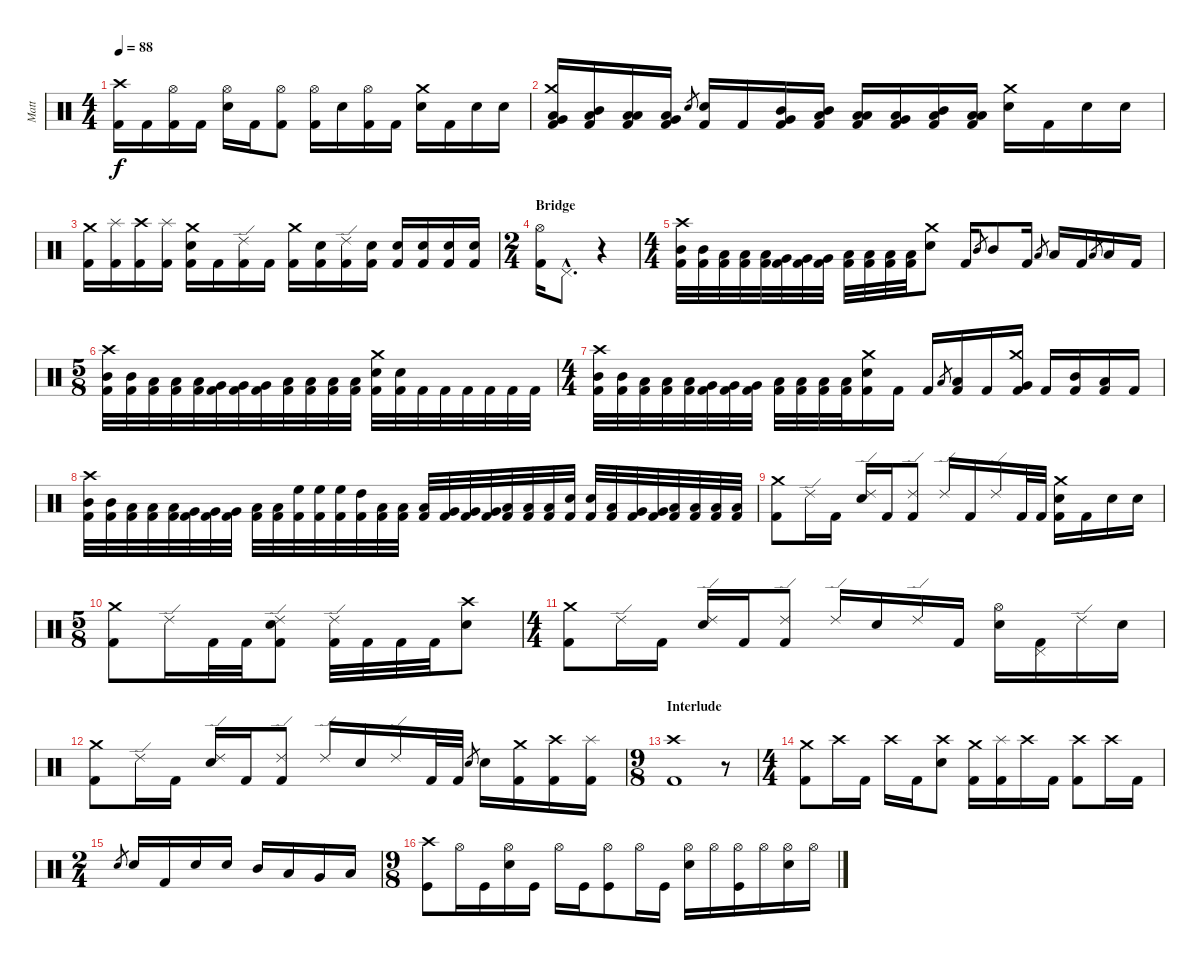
\track ("Matt" "Matt") {instrument percussion}
\staff {score}
\articulation defaults
\ts (4 4)
\tempo 88
\clef neutral
\ks c
("Crash high (hit)" "Kick (hit) 2").16{dy f} "Kick (hit) 2".16 ("Hi-Hat (open)" "Kick (hit) 2").16 "Kick (hit) 2".16 ("Hi-Hat (open)" "Electric Snare (hit)").16 "Kick (hit) 2".16 ("Hi-Hat (open)" "Kick (hit) 2").8 ("Hi-Hat (open)" "Kick (hit) 2").16 "Electric Snare (hit)".16 ("Hi-Hat (open)" "Kick (hit) 2").16 "Kick (hit) 2".16 ("Crash medium (hit)" "Electric Snare (hit)").16 "Kick (hit) 2".16 "Electric Snare (hit)".16 "Electric Snare (hit)".16 |
("Crash medium (hit)" "Low Tom (hit)" "Very Low Tom (hit)" "Kick (hit) 2").16 ("Low Tom (hit)" "Mid Tom (hit)" "Kick (hit) 2").16 ("Low Tom (hit)" "Low Tom (hit)" "Kick (hit) 2").16 ("Low Tom (hit)" "Very Low Tom (hit)" "Kick (hit) 2").16 "Electric Snare (hit)".8{gr} ("Electric Snare (hit)" "Kick (hit) 2").16 "Kick (hit) 2".16 ("Mid Tom (hit)" "Very Low Tom (hit)" "Kick (hit) 2").16 ("Low Tom (hit)" "Mid Tom (hit)" "Kick (hit) 2").16 ("Low Tom (hit)" "Low Tom (hit)" "Kick (hit) 2").16 ("Low Tom (hit)" "Very Low Tom (hit)" "Kick (hit) 2").16 ("Low Tom (hit)" "Mid Tom (hit)" "Kick (hit) 2").16 ("Low Tom (hit)" "Low Tom (hit)" "Kick (hit) 2").16 ("Crash medium (hit)" "Electric Snare (hit)").16 "Kick (hit) 2".16 "Electric Snare (hit)".16 "Electric Snare (hit)".16 |
("Crash medium (hit)" "Kick (hit) 2").16 ("Splash (hit)" "Kick (hit) 2").16 ("Crash high (hit)" "Kick (hit) 2").16 ("Splash (hit)" "Kick (hit) 2").16 ("Crash medium (hit)" "Electric Snare (hit)" "Kick (hit) 2").16 "Kick (hit) 2".16 ("Ride (edge) 2" "Kick (hit) 2").16 "Kick (hit) 2".16 ("Crash medium (hit)" "Kick (hit) 2").16 ("Electric Snare (hit)" "Kick (hit) 2").16 ("Ride (edge) 2" "Kick (hit) 2").16 ("Electric Snare (hit)" "Kick (hit) 2").16 ("Electric Snare (hit)" "Kick (hit) 2").16 ("Electric Snare (hit)" "Kick (hit) 2").16 ("Electric Snare (hit)" "Kick (hit) 2").16 ("Electric Snare (hit)" "Kick (hit) 2").16 |
\ts (2 4)
\section ("" "Bridge")
("Hi-Hat (open)" "Kick (hit) 2").16 "Pedal Hi-Hat (hit)"{hac}.8{d} r.4 |
\ts (4 4)
("Crash high (hit)" "Mid Tom (hit)" "Kick (hit) 2").32 ("Mid Tom (hit)" "Kick (hit) 2").32 ("Low Tom (hit)" "Kick (hit) 2").32 ("Low Tom (hit)" "Kick (hit) 2").32 ("Low Tom (hit)" "Kick (hit) 2").32 ("Very Low Tom (hit)" "Kick (hit) 2").32 ("Very Low Tom (hit)" "Kick (hit) 2").32 ("Very Low Tom (hit)" "Kick (hit) 2").32 ("Low Floor Tom (hit)" "Kick (hit) 2").32 ("Low Floor Tom (hit)" "Kick (hit) 2").32 ("Low Floor Tom (hit)" "Kick (hit) 2").32 ("Low Floor Tom (hit)" "Kick (hit) 2").32 ("Crash medium (hit)" "Electric Snare (hit)").8 "Kick (hit) 2".16 "Mid Tom (hit)".8{gr} "Mid Tom (hit)".8 "Kick (hit) 2".16 "Low Tom (hit)".8{gr} "Low Tom (hit)".16 "Kick (hit) 2".16 "Low Tom (hit)".8{gr} "Low Tom (hit)".16 "Kick (hit) 2".16 |
\ts (5 8)
("Crash high (hit)" "Mid Tom (hit)" "Kick (hit) 2").32 ("Mid Tom (hit)" "Kick (hit) 2").32 ("Low Tom (hit)" "Kick (hit) 2").32 ("Low Tom (hit)" "Kick (hit) 2").32 ("Low Tom (hit)" "Kick (hit) 2").32 ("Very Low Tom (hit)" "Kick (hit) 2").32 ("Very Low Tom (hit)" "Kick (hit) 2").32 ("Very Low Tom (hit)" "Kick (hit) 2").32 ("Low Floor Tom (hit)" "Kick (hit) 2").32 ("Low Floor Tom (hit)" "Kick (hit) 2").32 ("Low Floor Tom (hit)" "Kick (hit) 2").32 ("Low Floor Tom (hit)" "Kick (hit) 2").32 ("Crash medium (hit)" "Electric Snare (hit)" "Kick (hit) 2").32 ("Electric Snare (hit)" "Kick (hit) 2").32 "Kick (hit) 2".32 "Kick (hit) 2".32 "Kick (hit) 2".32 "Kick (hit) 2".32 "Kick (hit) 2".32 "Kick (hit) 2".32 |
\ts (4 4)
("Crash high (hit)" "Mid Tom (hit)" "Kick (hit) 2").32 ("Mid Tom (hit)" "Kick (hit) 2").32 ("Low Tom (hit)" "Kick (hit) 2").32 ("Low Tom (hit)" "Kick (hit) 2").32 ("Low Tom (hit)" "Kick (hit) 2").32 ("Very Low Tom (hit)" "Kick (hit) 2").32 ("Very Low Tom (hit)" "Kick (hit) 2").32 ("Very Low Tom (hit)" "Kick (hit) 2").32 ("Low Floor Tom (hit)" "Kick (hit) 2").32 ("Low Floor Tom (hit)" "Kick (hit) 2").32 ("Low Floor Tom (hit)" "Kick (hit) 2").32 ("Low Floor Tom (hit)" "Kick (hit) 2").32 ("Crash medium (hit)" "Electric Snare (hit)" "Kick (hit) 2").16 "Kick (hit) 2".16 "Kick (hit) 2".16 "Low Tom (hit)".8{gr} ("Low Tom (hit)" "Kick (hit) 2").16 "Kick (hit) 2".16 ("Crash medium (hit)" "Very Low Tom (hit)" "Kick (hit) 2").16 "Kick (hit) 2".16 ("Mid Tom (hit)" "Kick (hit) 2").16 ("Low Tom (hit)" "Kick (hit) 2").16 "Kick (hit) 2".16 |
("Crash high (hit)" "Mid Tom (hit)" "Kick (hit) 2").32 ("Mid Tom (hit)" "Kick (hit) 2").32 ("Low Tom (hit)" "Kick (hit) 2").32 ("Low Tom (hit)" "Kick (hit) 2").32 ("Low Tom (hit)" "Kick (hit) 2").32 ("Very Low Tom (hit)" "Kick (hit) 2").32 ("Very Low Tom (hit)" "Kick (hit) 2").32 ("Very Low Tom (hit)" "Kick (hit) 2").32 ("Low Floor Tom (hit)" "Kick (hit) 2").32 ("Low Floor Tom (hit)" "Kick (hit) 2").32 ("High Floor Tom (hit)" "Kick (hit) 2").32 ("High Floor Tom (hit)" "Kick (hit) 2").32 ("High Floor Tom (hit)" "Kick (hit) 2").32 ("High Tom (hit)" "Kick (hit) 2").32 ("Low Tom (hit)" "Kick (hit) 2").32 ("Low Tom (hit)" "Kick (hit) 2").32 ("Low Tom (hit)" "Kick (hit) 2").32 ("Very Low Tom (hit)" "Kick (hit) 2").32 ("Very Low Tom (hit)" "Kick (hit) 2").32 ("Very Low Tom (hit)" "Kick (hit) 2").32 ("Low Floor Tom (hit)" "Kick (hit) 2").32 ("Low Floor Tom (hit)" "Kick (hit) 2").32 ("Low Floor Tom (hit)" "Kick (hit) 2").32 ("Electric Snare (hit)" "Kick (hit) 2").32 ("Electric Snare (hit)" "Kick (hit) 2").32 ("Low Tom (hit)" "Kick (hit) 2").32 ("Very Low Tom (hit)" "Kick (hit) 2").32 ("Very Low Tom (hit)" "Kick (hit) 2").32 ("Low Floor Tom (hit)" "Kick (hit) 2").32 ("Low Floor Tom (hit)" "Kick (hit) 2").32 ("Low Floor Tom (hit)" "Kick (hit) 2").32 ("Low Floor Tom (hit)" "Kick (hit) 2").32 |
("Crash medium (hit)" "Kick (hit) 2").8 "Ride (edge) 2".16 "Kick (hit) 2".16 ("Ride (edge) 2" "Electric Snare (hit)").16 "Kick (hit) 2".16 ("Ride (edge) 2" "Kick (hit) 2").8 "Ride (edge) 2".16 "Kick (hit) 2".16 "Ride (edge) 2".16 "Kick (hit) 2".32 "Kick (hit) 2".32 ("Crash medium (hit)" "Electric Snare (hit)" "Kick (hit) 2").16 "Kick (hit) 2".16 "Electric Snare (hit)".16 "Electric Snare (hit)".16 |
\ts (5 8)
("Crash medium (hit)" "Kick (hit) 2").8 "Ride (edge) 2".16 "Kick (hit) 2".32 "Kick (hit) 2".32 ("Ride (edge) 2" "Electric Snare (hit)" "Kick (hit) 2").8 ("Ride (edge) 2" "Kick (hit) 2").32 "Kick (hit) 2".32 "Kick (hit) 2".32 "Kick (hit) 2".32 ("Crash high (hit)" "Electric Snare (hit)").8 |
\ts (4 4)
("Crash medium (hit)" "Kick (hit) 2").8 "Ride (edge) 2".16 "Kick (hit) 2".16 ("Ride (edge) 2" "Electric Snare (hit)").16 "Kick (hit) 2".16 ("Ride (edge) 2" "Kick (hit) 2").8 "Ride (edge) 2".16 "Electric Snare (hit)".16 "Ride (edge) 2".16 "Kick (hit) 2".16 ("Hi-Hat (open)" "Electric Snare (hit)").16 ("Pedal Hi-Hat (hit)" "Kick (hit) 2").16 "Ride (edge) 2".16 "Electric Snare (hit)".16 |
("Crash medium (hit)" "Kick (hit) 2").8 "Ride (edge) 2".16 "Kick (hit) 2".16 ("Ride (edge) 2" "Electric Snare (hit)").16 "Kick (hit) 2".16 ("Ride (edge) 2" "Kick (hit) 2").8 "Ride (edge) 2".16 "Electric Snare (hit)".16 "Ride (edge) 2".16 "Kick (hit) 2".32 "Kick (hit) 2".32 "Electric Snare (hit)".8{gr} "Electric Snare (hit)".16 ("Crash medium (hit)" "Kick (hit) 2").16 ("Crash high (hit)" "Kick (hit) 2").16 ("Splash (hit)" "Kick (hit) 2").16 |
\ts (9 8)
\section ("" "Interlude")
("Crash high (hit)" "Kick (hit) 2").1 r.8 |
\ts (4 4)
("Crash medium (hit)" "Kick (hit) 2").8 "Crash high (hit)".16 "Kick (hit) 2".16 "Crash high (hit)".16 "Kick (hit) 2".16 ("Crash high (hit)" "Electric Snare (hit)").8 ("Crash medium (hit)" "Kick (hit) 2").16 ("Splash (hit)" "Kick (hit) 2").16 "Crash high (hit)".16 "Kick (hit) 2".16 ("Crash high (hit)" "Kick (hit) 2").8 "Crash high (hit)".16 "Kick (hit) 2".16 |
\ts (2 4)
"Electric Snare (hit)".8{gr} "Electric Snare (hit)".16 "Kick (hit) 2".16 "Electric Snare (hit)".16 "Electric Snare (hit)".16 "Mid Tom (hit)".16 "Low Tom (hit)".16 "Very Low Tom (hit)".16 "Low Floor Tom (hit)".16 |
\ts (9 8)
("Crash high (hit)" "Kick (hit)").8{volume 12} "Hi-Hat (open)".16 "Kick (hit)".16 ("Hi-Hat (open)" "Snare (hit) 2").16 "Kick (hit)".16 "Hi-Hat (open)".16 "Kick (hit)".16 ("Hi-Hat (open)" "Kick (hit)").8 "Hi-Hat (open)".16 "Kick (hit)".16 ("Hi-Hat (open)" "Snare (hit) 2").16 "Hi-Hat (open)".16 ("Hi-Hat (open)" "Kick (hit)").16 "Hi-Hat (open)".16 ("Hi-Hat (open)" "Snare (hit) 2").16 "Hi-Hat (open)".16
